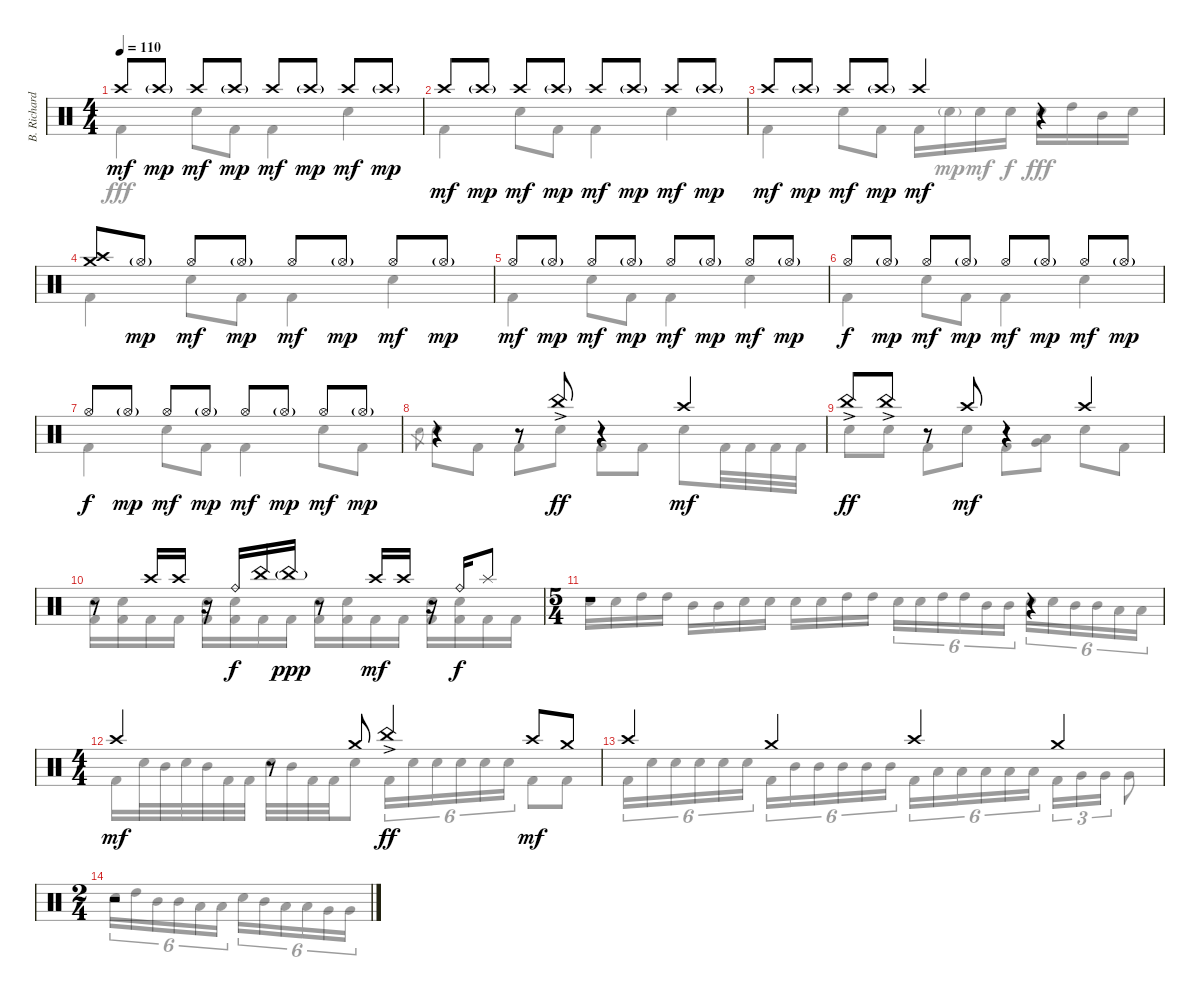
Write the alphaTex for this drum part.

\track ("B. Richardson Drums" "B. Richard") {instrument percussion}
\staff {score}
\articulation defaults
\voice
\ts (4 4)
\tempo 110
\clef neutral
\ks c "Crash high (hit)".8{dy mf} "Crash high (hit)"{g}.8{dy mp} "Crash high (hit)".8{dy mf} "Crash high (hit)"{g}.8{dy mp} "Crash high (hit)".8{dy mf} "Crash high (hit)"{g}.8{dy mp} "Crash high (hit)".8{dy mf} "Crash high (hit)"{g}.8{dy mp}
|
"Crash high (hit)".8{dy mf} "Crash high (hit)"{g}.8{dy mp} "Crash high (hit)".8{dy mf} "Crash high (hit)"{g}.8{dy mp} "Crash high (hit)".8{dy mf} "Crash high (hit)"{g}.8{dy mp} "Crash high (hit)".8{dy mf} "Crash high (hit)"{g}.8{dy mp} |
"Crash high (hit)".8{dy mf} "Crash high (hit)"{g}.8{dy mp} "Crash high (hit)".8{dy mf} "Crash high (hit)"{g}.8{dy mp} "Crash high (hit)".4{dy mf} r.4 |
("Crash high (hit)" "Crash medium (hit)").8 "Hi-Hat (open)"{g}.8{dy mp} "Hi-Hat (open)".8{dy mf} "Hi-Hat (open)"{g}.8{dy mp} "Hi-Hat (open)".8{dy mf} "Hi-Hat (open)"{g}.8{dy mp} "Hi-Hat (open)".8{dy mf} "Hi-Hat (open)"{g}.8{dy mp} |
"Hi-Hat (open)".8{dy mf} "Hi-Hat (open)"{g}.8{dy mp} "Hi-Hat (open)".8{dy mf} "Hi-Hat (open)"{g}.8{dy mp} "Hi-Hat (open)".8{dy mf} "Hi-Hat (open)"{g}.8{dy mp} "Hi-Hat (open)".8{dy mf} "Hi-Hat (open)"{g}.8{dy mp} |
"Hi-Hat (open)".8{dy f} "Hi-Hat (open)"{g}.8{dy mp} "Hi-Hat (open)".8{dy mf} "Hi-Hat (open)"{g}.8{dy mp} "Hi-Hat (open)".8{dy mf} "Hi-Hat (open)"{g}.8{dy mp} "Hi-Hat (open)".8{dy mf} "Hi-Hat (open)"{g}.8{dy mp} |
"Hi-Hat (open)".8{dy f} "Hi-Hat (open)"{g}.8{dy mp} "Hi-Hat (open)".8{dy mf} "Hi-Hat (open)"{g}.8{dy mp} "Hi-Hat (open)".8{dy mf} "Hi-Hat (open)"{g}.8{dy mp} "Hi-Hat (open)".8{dy mf} "Hi-Hat (open)"{g}.8{dy mp} |
r.4 r.8 "China (hit)"{ac}.8{dy ff} r.4 "Crash high (hit)".4{dy mf} |
"China (hit)"{ac}.8{dy ff} "China (hit)"{ac}.8 r.8 "Crash high (hit)".8{dy mf} r.4 "Crash high (hit)".4 |
r.8 "Crash high (hit)".16 "Crash high (hit)".16 r.16 "Ride (bell)".16{dy f} "China (hit)".16 "China (hit)"{g}.16{dy ppp} r.8 "Crash high (hit)".16{dy mf} "Crash high (hit)".16 r.16 "Ride (bell)".16{dy f} "Splash (hit)".8 |
\ts (5 4)
r.1 r.4 |
\ts (4 4)
"Crash high (hit)".4{dy mf} r.8 "Crash medium (hit)".8 "China (hit)"{ac}.4{dy ff} "Crash high (hit)".8{dy mf} "Crash medium (hit)".8 |
"Crash high (hit)".4 "Crash medium (hit)".4 "Crash high (hit)".4 "Crash medium (hit)".4 |
\ts (2 4)
r.2
\voice
\clef neutral
\ottava regular
\simile none
\ks c "Kick (hit) 2".4{dy fff} "Electric Snare (hit)".8 "Kick (hit) 2".8 "Kick (hit) 2".4 "Electric Snare (hit)".4
|
"Kick (hit) 2".4 "Electric Snare (hit)".8 "Kick (hit) 2".8 "Kick (hit) 2".4 "Electric Snare (hit)".4 |
"Kick (hit) 2".4 "Electric Snare (hit)".8 "Kick (hit) 2".8 "Kick (hit) 2".16 "Electric Snare (hit)"{g}.16{dy mp} "Electric Snare (hit)".16{dy mf} "Electric Snare (hit)".16{dy f} "Electric Snare (hit)".16{dy fff} "High Tom (hit)".16 "Mid Tom (hit)".16 "Electric Snare (hit)".16 |
"Kick (hit) 2".4 "Electric Snare (hit)".8 "Kick (hit) 2".8 "Kick (hit) 2".4 "Electric Snare (hit)".4 |
"Kick (hit) 2".4 "Electric Snare (hit)".8 "Kick (hit) 2".8 "Kick (hit) 2".4 "Electric Snare (hit)".4 |
"Kick (hit) 2".4 "Electric Snare (hit)".8 "Kick (hit) 2".8 "Kick (hit) 2".4 "Electric Snare (hit)".4 |
"Kick (hit) 2".4 "Electric Snare (hit)".8 "Kick (hit) 2".8 "Kick (hit) 2".4 "Electric Snare (hit)".8 "Kick (hit) 2".8 |
"Electric Snare (hit)".8{gr} "Electric Snare (hit)".8 "Kick (hit) 2".8 "Kick (hit) 2".8 "Electric Snare (hit)".8 "Kick (hit) 2".8 "Kick (hit) 2".8 "Electric Snare (hit)".8 "Kick (hit) 2".32 "Kick (hit) 2".32 "Kick (hit) 2".32 "Kick (hit) 2".32 |
"Electric Snare (hit)".8 "Electric Snare (hit)".8 "Kick (hit) 2".8 "Electric Snare (hit)".8 "Kick (hit) 2".8 ("Low Tom (hit)" "Very Low Tom (hit)").8 "Electric Snare (hit)".8 "Kick (hit) 2".8 |
("Electric Snare (hit)" "Kick (hit) 2").16 ("Electric Snare (hit)" "Kick (hit) 2").16 "Kick (hit) 2".16 "Kick (hit) 2".16 ("Electric Snare (hit)" "Kick (hit) 2").16 ("Electric Snare (hit)" "Kick (hit) 2").16 "Kick (hit) 2".16 "Kick (hit) 2".16 ("Electric Snare (hit)" "Kick (hit) 2").16 ("Electric Snare (hit)" "Kick (hit) 2").16 "Kick (hit) 2".16 "Kick (hit) 2".16 ("Electric Snare (hit)" "Kick (hit) 2").16 ("Electric Snare (hit)" "Kick (hit) 2").16 "Kick (hit) 2".16 "Kick (hit) 2".16 |
"Electric Snare (hit)".16 "Electric Snare (hit)".16 "High Tom (hit)".16 "High Tom (hit)".16 "Mid Tom (hit)".16 "Mid Tom (hit)".16 "Electric Snare (hit)".16 "Electric Snare (hit)".16 "Electric Snare (hit)".16 "Electric Snare (hit)".16 "High Tom (hit)".16 "High Tom (hit)".16 "Electric Snare (hit)".16{tu (6 4)} "Electric Snare (hit)".16{tu (6 4)} "High Tom (hit)".16{tu (6 4)} "High Tom (hit)".16{tu (6 4)} "Mid Tom (hit)".16{tu (6 4)} "Mid Tom (hit)".16{tu (6 4)} "Electric Snare (hit)".16{tu (6 4)} "Electric Snare (hit)".16{tu (6 4)} "Mid Tom (hit)".16{tu (6 4)} "Mid Tom (hit)".16{tu (6 4)} "Low Tom (hit)".16{tu (6 4)} "Low Tom (hit)".16{tu (6 4)} |
"Kick (hit) 2".16 "Electric Snare (hit)".32 "Mid Tom (hit)".32 "Electric Snare (hit)".32 "Mid Tom (hit)".32 "Kick (hit) 2".32 "Kick (hit) 2".32 "Electric Snare (hit)".32 "Mid Tom (hit)".32 "Kick (hit) 2".32 "Kick (hit) 2".32 "Electric Snare (hit)".8 "Kick (hit) 2".16{tu (6 4)} "Electric Snare (hit)".16{tu (6 4)} "Electric Snare (hit)".16{tu (6 4)} "Electric Snare (hit)".16{tu (6 4)} "Electric Snare (hit)".16{tu (6 4)} "Electric Snare (hit)".16{tu (6 4)} "Kick (hit) 2".8 "Kick (hit) 2".8 |
"Kick (hit) 2".16{tu (6 4)} "Electric Snare (hit)".16{tu (6 4)} "Electric Snare (hit)".16{tu (6 4)} "Electric Snare (hit)".16{tu (6 4)} "Electric Snare (hit)".16{tu (6 4)} "Electric Snare (hit)".16{tu (6 4)} "Kick (hit) 2".16{tu (6 4)} "Mid Tom (hit)".16{tu (6 4)} "Mid Tom (hit)".16{tu (6 4)} "Mid Tom (hit)".16{tu (6 4)} "Mid Tom (hit)".16{tu (6 4)} "Mid Tom (hit)".16{tu (6 4)} "Kick (hit) 2".16{tu (6 4)} "Low Tom (hit)".16{tu (6 4)} "Low Tom (hit)".16{tu (6 4)} "Low Tom (hit)".16{tu (6 4)} "Low Tom (hit)".16{tu (6 4)} "Low Tom (hit)".16{tu (6 4)} "Kick (hit) 2".16{tu (3 2)} "Very Low Tom (hit)".16{tu (3 2)} "Very Low Tom (hit)".16{tu (3 2)} "Very Low Tom (hit)".8 |
"Electric Snare (hit)".16{tu (6 4)} "High Tom (hit)".16{tu (6 4)} "Mid Tom (hit)".16{tu (6 4)} "Mid Tom (hit)".16{tu (6 4)} "Low Tom (hit)".16{tu (6 4)} "Low Tom (hit)".16{tu (6 4)} "Electric Snare (hit)".16{tu (6 4)} "Mid Tom (hit)".16{tu (6 4)} "Low Tom (hit)".16{tu (6 4)} "Low Tom (hit)".16{tu (6 4)} "Very Low Tom (hit)".16{tu (6 4)} "Very Low Tom (hit)".16{tu (6 4)}
